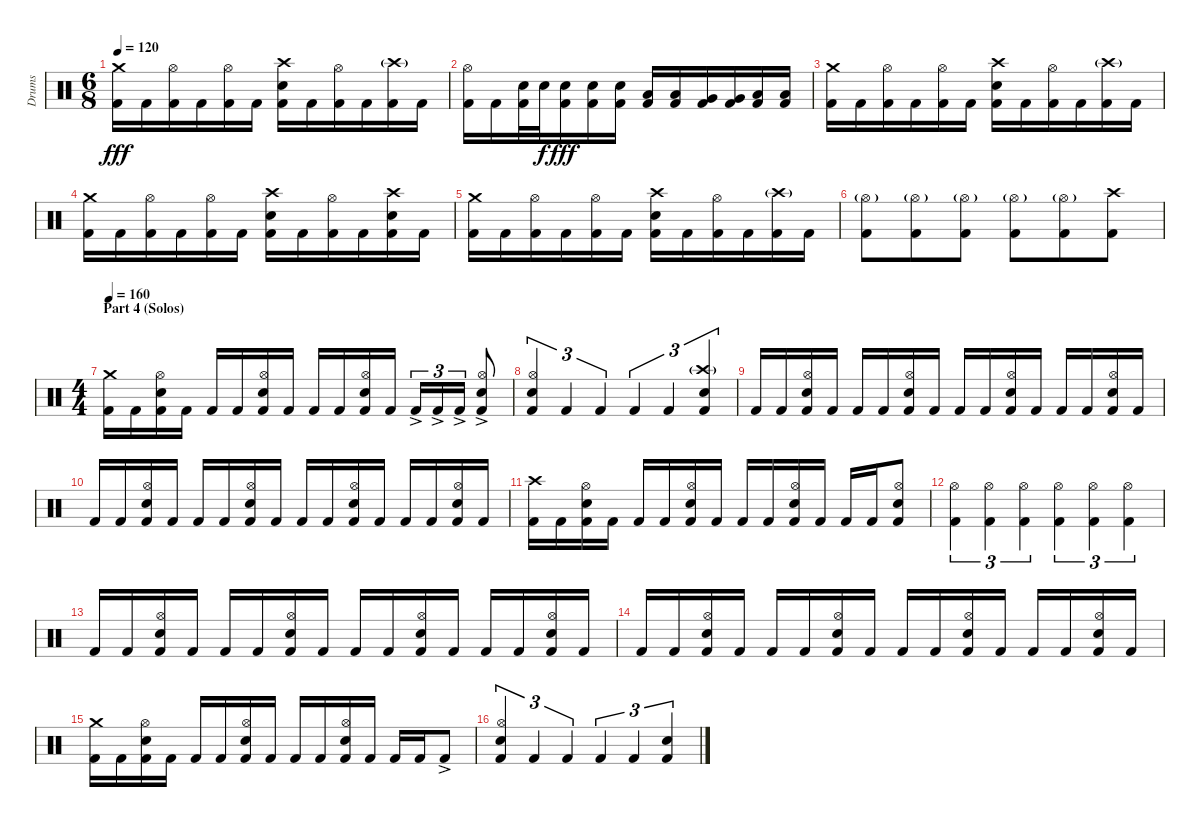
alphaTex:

\track ("Drums" "Drums") {instrument percussion}
\staff {score}
\articulation defaults
\ts (6 8)
\tempo 120
\clef neutral
\ks c
("Crash medium (hit)" "Kick (hit) 2").16{dy fff} "Kick (hit) 2".16 ("Hi-Hat (open)" "Kick (hit) 2").16 "Kick (hit) 2".16 ("Hi-Hat (open)" "Kick (hit) 2").16 "Kick (hit) 2".16 ("Crash high (hit)" "Electric Snare (hit)" "Kick (hit) 2").16 "Kick (hit) 2".16 ("Hi-Hat (open)" "Kick (hit) 2").16 "Kick (hit) 2".16 ("Crash high (hit)"{g} "Kick (hit) 2").16 "Kick (hit) 2".16 |
("Hi-Hat (open)" "Kick (hit) 2").16 "Kick (hit) 2".16 ("Electric Snare (hit)" "Kick (hit) 2").32 "Electric Snare (hit)".32{dy f} ("Electric Snare (hit)" "Kick (hit) 2").16{dy fff} ("Electric Snare (hit)" "Kick (hit) 2").16 ("Electric Snare (hit)" "Kick (hit) 2").16 ("Low Tom (hit)" "Kick (hit) 2").16 ("Low Tom (hit)" "Kick (hit) 2").16 ("Very Low Tom (hit)" "Kick (hit) 2").16 ("Very Low Tom (hit)" "Kick (hit) 2").16 ("Low Floor Tom (hit)" "Kick (hit) 2").16 ("Low Floor Tom (hit)" "Kick (hit) 2").16 |
("Crash medium (hit)" "Kick (hit) 2").16 "Kick (hit) 2".16 ("Hi-Hat (open)" "Kick (hit) 2").16 "Kick (hit) 2".16 ("Hi-Hat (open)" "Kick (hit) 2").16 "Kick (hit) 2".16 ("Crash high (hit)" "Electric Snare (hit)" "Kick (hit) 2").16 "Kick (hit) 2".16 ("Hi-Hat (open)" "Kick (hit) 2").16 "Kick (hit) 2".16 ("Crash high (hit)"{g} "Kick (hit) 2").16 "Kick (hit) 2".16 |
("Crash medium (hit)" "Kick (hit) 2").16 "Kick (hit) 2".16 ("Hi-Hat (open)" "Kick (hit) 2").16 "Kick (hit) 2".16 ("Hi-Hat (open)" "Kick (hit) 2").16 "Kick (hit) 2".16 ("Crash high (hit)" "Electric Snare (hit)" "Kick (hit) 2").16 "Kick (hit) 2".16 ("Hi-Hat (open)" "Kick (hit) 2").16 "Kick (hit) 2".16 ("Crash high (hit)" "Electric Snare (hit)" "Kick (hit) 2").16 "Kick (hit) 2".16 |
("Crash medium (hit)" "Kick (hit) 2").16 "Kick (hit) 2".16 ("Hi-Hat (open)" "Kick (hit) 2").16 "Kick (hit) 2".16 ("Hi-Hat (open)" "Kick (hit) 2").16 "Kick (hit) 2".16 ("Crash high (hit)" "Electric Snare (hit)" "Kick (hit) 2").16 "Kick (hit) 2".16 ("Hi-Hat (open)" "Kick (hit) 2").16 "Kick (hit) 2".16 ("Crash high (hit)"{g} "Kick (hit) 2").16 "Kick (hit) 2".16 |
("Hi-Hat (open)"{g} "Kick (hit) 2").8 ("Hi-Hat (open)"{g} "Kick (hit) 2").8 ("Hi-Hat (open)"{g} "Kick (hit) 2").8 ("Hi-Hat (open)"{g} "Kick (hit) 2").8 ("Hi-Hat (open)"{g} "Kick (hit) 2").8 ("Crash high (hit)" "Kick (hit) 2").8 |
\ts (4 4)
\section ("" "Part 4 (Solos)")
\tempo 160
("Crash medium (hit)" "Kick (hit) 2").16 "Kick (hit) 2".16 ("Hi-Hat (open)" "Electric Snare (hit)" "Kick (hit) 2").16 "Kick (hit) 2".16 "Kick (hit) 2".16 "Kick (hit) 2".16 ("Hi-Hat (open)" "Electric Snare (hit)" "Kick (hit) 2").16 "Kick (hit) 2".16 "Kick (hit) 2".16 "Kick (hit) 2".16 ("Hi-Hat (open)" "Electric Snare (hit)" "Kick (hit) 2").16 "Kick (hit) 2".16 "Kick (hit) 2"{ac}.16{tu (3 2)} "Kick (hit) 2"{ac}.16{tu (3 2)} "Kick (hit) 2"{ac}.16{tu (3 2)} ("Hi-Hat (open)" "Electric Snare (hit)" "Kick (hit) 2"{ac}).8 |
("Hi-Hat (open)" "Electric Snare (hit)" "Kick (hit) 2").4{tu (3 2)} "Kick (hit) 2".4{tu (3 2)} "Kick (hit) 2".4{tu (3 2)} "Kick (hit) 2".4{tu (3 2)} "Kick (hit) 2".4{tu (3 2)} ("Crash high (hit)"{g} "Electric Snare (hit)" "Kick (hit) 2").4{tu (3 2)} |
"Kick (hit) 2".16 "Kick (hit) 2".16 ("Hi-Hat (open)" "Electric Snare (hit)" "Kick (hit) 2").16 "Kick (hit) 2".16 "Kick (hit) 2".16 "Kick (hit) 2".16 ("Hi-Hat (open)" "Electric Snare (hit)" "Kick (hit) 2").16 "Kick (hit) 2".16 "Kick (hit) 2".16 "Kick (hit) 2".16 ("Hi-Hat (open)" "Electric Snare (hit)" "Kick (hit) 2").16 "Kick (hit) 2".16 "Kick (hit) 2".16 "Kick (hit) 2".16 ("Hi-Hat (open)" "Electric Snare (hit)" "Kick (hit) 2").16 "Kick (hit) 2".16 |
"Kick (hit) 2".16 "Kick (hit) 2".16 ("Hi-Hat (open)" "Electric Snare (hit)" "Kick (hit) 2").16 "Kick (hit) 2".16 "Kick (hit) 2".16 "Kick (hit) 2".16 ("Hi-Hat (open)" "Electric Snare (hit)" "Kick (hit) 2").16 "Kick (hit) 2".16 "Kick (hit) 2".16 "Kick (hit) 2".16 ("Hi-Hat (open)" "Electric Snare (hit)" "Kick (hit) 2").16 "Kick (hit) 2".16 "Kick (hit) 2".16 "Kick (hit) 2".16 ("Hi-Hat (open)" "Electric Snare (hit)" "Kick (hit) 2").16 "Kick (hit) 2".16 |
("Crash high (hit)" "Kick (hit) 2").16 "Kick (hit) 2".16 ("Hi-Hat (open)" "Electric Snare (hit)" "Kick (hit) 2").16 "Kick (hit) 2".16 "Kick (hit) 2".16 "Kick (hit) 2".16 ("Hi-Hat (open)" "Electric Snare (hit)" "Kick (hit) 2").16 "Kick (hit) 2".16 "Kick (hit) 2".16 "Kick (hit) 2".16 ("Hi-Hat (open)" "Electric Snare (hit)" "Kick (hit) 2").16 "Kick (hit) 2".16 "Kick (hit) 2".16 "Kick (hit) 2".16 ("Hi-Hat (open)" "Electric Snare (hit)" "Kick (hit) 2").8 |
("Hi-Hat (open)" "Kick (hit) 2").4{tu (3 2)} ("Hi-Hat (open)" "Kick (hit) 2").4{tu (3 2)} ("Hi-Hat (open)" "Kick (hit) 2").4{tu (3 2)} ("Hi-Hat (open)" "Kick (hit) 2").4{tu (3 2)} ("Hi-Hat (open)" "Kick (hit) 2").4{tu (3 2)} ("Hi-Hat (open)" "Kick (hit) 2").4{tu (3 2)} |
"Kick (hit) 2".16 "Kick (hit) 2".16 ("Hi-Hat (open)" "Electric Snare (hit)" "Kick (hit) 2").16 "Kick (hit) 2".16 "Kick (hit) 2".16 "Kick (hit) 2".16 ("Hi-Hat (open)" "Electric Snare (hit)" "Kick (hit) 2").16 "Kick (hit) 2".16 "Kick (hit) 2".16 "Kick (hit) 2".16 ("Hi-Hat (open)" "Electric Snare (hit)" "Kick (hit) 2").16 "Kick (hit) 2".16 "Kick (hit) 2".16 "Kick (hit) 2".16 ("Hi-Hat (open)" "Electric Snare (hit)" "Kick (hit) 2").16 "Kick (hit) 2".16 |
"Kick (hit) 2".16 "Kick (hit) 2".16 ("Hi-Hat (open)" "Electric Snare (hit)" "Kick (hit) 2").16 "Kick (hit) 2".16 "Kick (hit) 2".16 "Kick (hit) 2".16 ("Hi-Hat (open)" "Electric Snare (hit)" "Kick (hit) 2").16 "Kick (hit) 2".16 "Kick (hit) 2".16 "Kick (hit) 2".16 ("Hi-Hat (open)" "Electric Snare (hit)" "Kick (hit) 2").16 "Kick (hit) 2".16 "Kick (hit) 2".16 "Kick (hit) 2".16 ("Hi-Hat (open)" "Electric Snare (hit)" "Kick (hit) 2").16 "Kick (hit) 2".16 |
("Crash medium (hit)" "Kick (hit) 2").16 "Kick (hit) 2".16 ("Hi-Hat (open)" "Electric Snare (hit)" "Kick (hit) 2").16 "Kick (hit) 2".16 "Kick (hit) 2".16 "Kick (hit) 2".16 ("Hi-Hat (open)" "Electric Snare (hit)" "Kick (hit) 2").16 "Kick (hit) 2".16 "Kick (hit) 2".16 "Kick (hit) 2".16 ("Hi-Hat (open)" "Electric Snare (hit)" "Kick (hit) 2").16 "Kick (hit) 2".16 "Kick (hit) 2".16 "Kick (hit) 2".16 "Kick (hit) 2"{ac}.8 |
("Hi-Hat (open)" "Electric Snare (hit)" "Kick (hit) 2").4{tu (3 2)} "Kick (hit) 2".4{tu (3 2)} "Kick (hit) 2".4{tu (3 2)} "Kick (hit) 2".4{tu (3 2)} "Kick (hit) 2".4{tu (3 2)} ("Electric Snare (hit)" "Kick (hit) 2").4{tu (3 2)}
